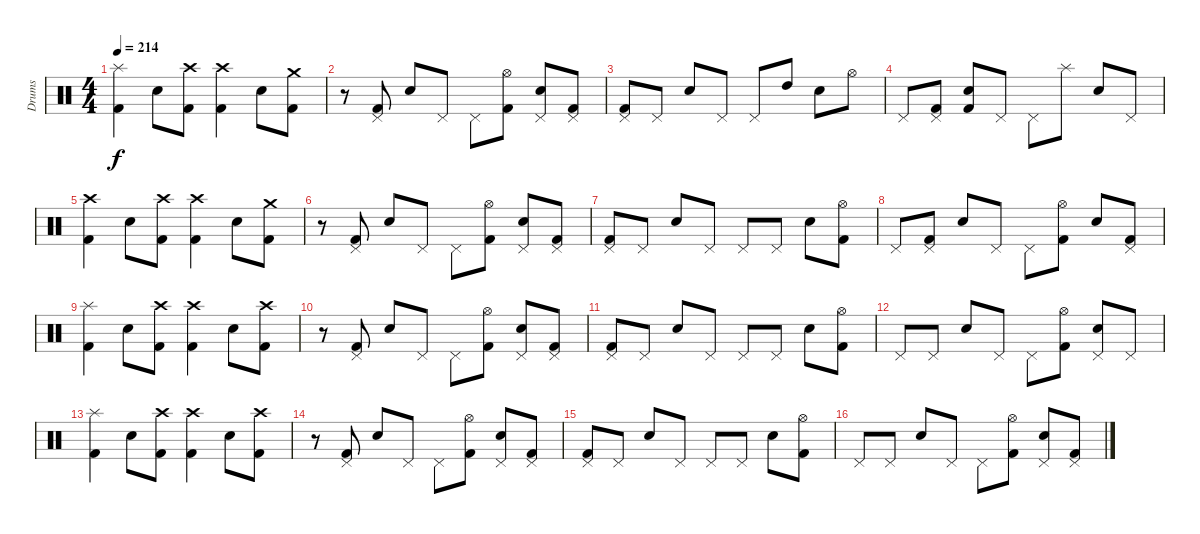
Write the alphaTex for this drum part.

\track ("Drums" "Drums") {instrument percussion}
\staff {score}
\articulation defaults
\ts (4 4)
\tempo 214
\clef neutral
\ks c
("Splash (hit)" "Kick (hit) 2").4{dy f} "Electric Snare (hit)".8 ("Crash high (hit)" "Kick (hit) 2").8 ("Crash high (hit)" "Kick (hit) 2").4 "Electric Snare (hit)".8 ("Crash medium (hit)" "Kick (hit) 2").8 |
r.8 ("Pedal Hi-Hat (hit)" "Kick (hit) 2").8 "Electric Snare (hit)".8 "Pedal Hi-Hat (hit)".8 "Pedal Hi-Hat (hit)".8 ("Hi-Hat (open)" "Kick (hit) 2").8 ("Pedal Hi-Hat (hit)" "Electric Snare (hit)").8 ("Pedal Hi-Hat (hit)" "Kick (hit) 2").8 |
("Pedal Hi-Hat (hit)" "Kick (hit) 2").8 "Pedal Hi-Hat (hit)".8 "Electric Snare (hit)".8 "Pedal Hi-Hat (hit)".8 "Pedal Hi-Hat (hit)".8 "High Tom (hit)".8 "Electric Snare (hit)".8 "Hi-Hat (open)".8 |
"Pedal Hi-Hat (hit)".8 ("Pedal Hi-Hat (hit)" "Kick (hit) 2").8 ("Electric Snare (hit)" "Kick (hit) 2").8 "Pedal Hi-Hat (hit)".8 "Pedal Hi-Hat (hit)".8 "Splash (hit)".8 "Electric Snare (hit)".8 "Pedal Hi-Hat (hit)".8 |
("Crash high (hit)" "Kick (hit) 2").4 "Electric Snare (hit)".8 ("Crash high (hit)" "Kick (hit) 2").8 ("Crash high (hit)" "Kick (hit) 2").4 "Electric Snare (hit)".8 ("Crash medium (hit)" "Kick (hit) 2").8 |
r.8 ("Pedal Hi-Hat (hit)" "Kick (hit) 2").8 "Electric Snare (hit)".8 "Pedal Hi-Hat (hit)".8 "Pedal Hi-Hat (hit)".8 ("Hi-Hat (open)" "Kick (hit) 2").8 ("Pedal Hi-Hat (hit)" "Electric Snare (hit)").8 ("Pedal Hi-Hat (hit)" "Kick (hit) 2").8 |
("Pedal Hi-Hat (hit)" "Kick (hit) 2").8 "Pedal Hi-Hat (hit)".8 "Electric Snare (hit)".8 "Pedal Hi-Hat (hit)".8 "Pedal Hi-Hat (hit)".8 "Pedal Hi-Hat (hit)".8 "Electric Snare (hit)".8 ("Hi-Hat (open)" "Kick (hit) 2").8 |
"Pedal Hi-Hat (hit)".8 ("Pedal Hi-Hat (hit)" "Kick (hit) 2").8 "Electric Snare (hit)".8 "Pedal Hi-Hat (hit)".8 "Pedal Hi-Hat (hit)".8 ("Hi-Hat (open)" "Kick (hit) 2").8 "Electric Snare (hit)".8 ("Pedal Hi-Hat (hit)" "Kick (hit) 2").8 |
("Splash (hit)" "Kick (hit) 2").4 "Electric Snare (hit)".8 ("Crash high (hit)" "Kick (hit) 2").8 ("Crash high (hit)" "Kick (hit) 2").4 "Electric Snare (hit)".8 ("Crash high (hit)" "Kick (hit) 2").8 |
r.8 ("Pedal Hi-Hat (hit)" "Kick (hit) 2").8 "Electric Snare (hit)".8 "Pedal Hi-Hat (hit)".8 "Pedal Hi-Hat (hit)".8 ("Hi-Hat (open)" "Kick (hit) 2").8 ("Pedal Hi-Hat (hit)" "Electric Snare (hit)").8 ("Pedal Hi-Hat (hit)" "Kick (hit) 2").8 |
("Pedal Hi-Hat (hit)" "Kick (hit) 2").8 "Pedal Hi-Hat (hit)".8 "Electric Snare (hit)".8 "Pedal Hi-Hat (hit)".8 "Pedal Hi-Hat (hit)".8 "Pedal Hi-Hat (hit)".8 "Electric Snare (hit)".8 ("Hi-Hat (open)" "Kick (hit) 2").8 |
"Pedal Hi-Hat (hit)".8 "Pedal Hi-Hat (hit)".8 "Electric Snare (hit)".8 "Pedal Hi-Hat (hit)".8 "Pedal Hi-Hat (hit)".8 ("Hi-Hat (open)" "Kick (hit) 2").8 ("Pedal Hi-Hat (hit)" "Electric Snare (hit)").8 "Pedal Hi-Hat (hit)".8 |
("Splash (hit)" "Kick (hit) 2").4 "Electric Snare (hit)".8 ("Crash high (hit)" "Kick (hit) 2").8 ("Crash high (hit)" "Kick (hit) 2").4 "Electric Snare (hit)".8 ("Crash high (hit)" "Kick (hit) 2").8 |
r.8 ("Pedal Hi-Hat (hit)" "Kick (hit) 2").8 "Electric Snare (hit)".8 "Pedal Hi-Hat (hit)".8 "Pedal Hi-Hat (hit)".8 ("Hi-Hat (open)" "Kick (hit) 2").8 ("Pedal Hi-Hat (hit)" "Electric Snare (hit)").8 ("Pedal Hi-Hat (hit)" "Kick (hit) 2").8 |
("Pedal Hi-Hat (hit)" "Kick (hit) 2").8 "Pedal Hi-Hat (hit)".8 "Electric Snare (hit)".8 "Pedal Hi-Hat (hit)".8 "Pedal Hi-Hat (hit)".8 "Pedal Hi-Hat (hit)".8 "Electric Snare (hit)".8 ("Hi-Hat (open)" "Kick (hit) 2").8 |
"Pedal Hi-Hat (hit)".8 "Pedal Hi-Hat (hit)".8 "Electric Snare (hit)".8 "Pedal Hi-Hat (hit)".8 "Pedal Hi-Hat (hit)".8 ("Hi-Hat (open)" "Kick (hit) 2").8 ("Pedal Hi-Hat (hit)" "Electric Snare (hit)").8 ("Pedal Hi-Hat (hit)" "Kick (hit) 2").8
